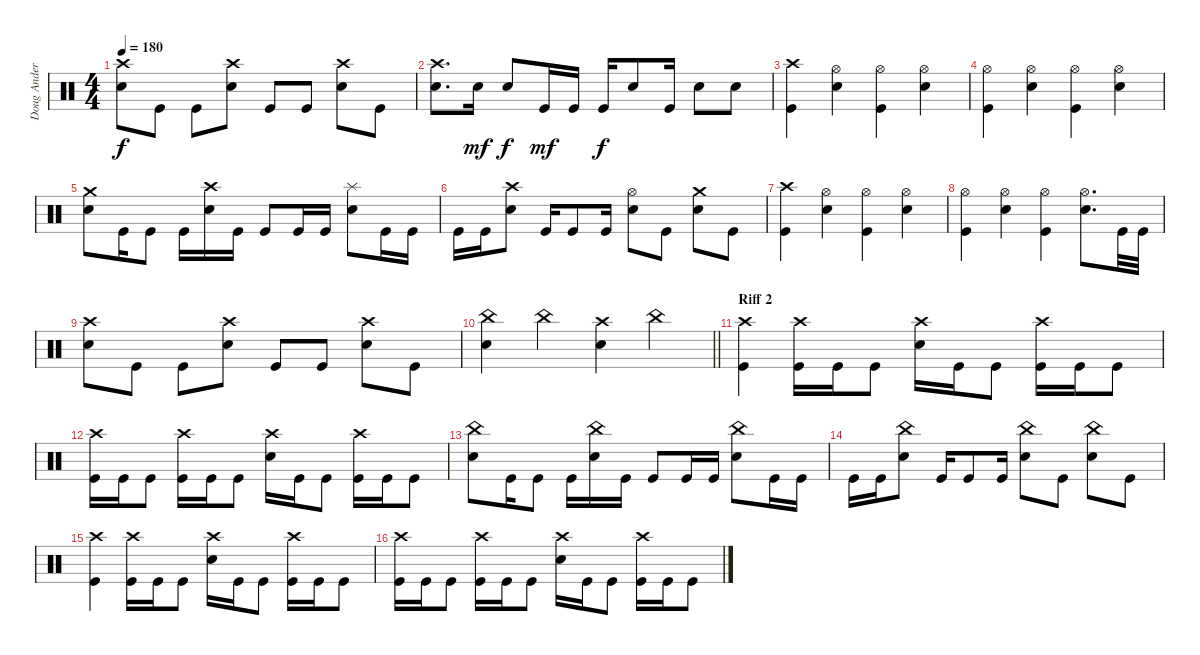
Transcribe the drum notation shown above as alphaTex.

\track ("Doug Anderson" "Doug Ander") {instrument percussion}
\staff {score}
\articulation defaults
\ts (4 4)
\tempo 180
\clef neutral
\ks c
("Snare (hit) 2" "Crash high (hit)").8{dy f} "Kick (hit)".8 "Kick (hit)".8 ("Snare (hit) 2" "Crash high (hit)").8 "Kick (hit)".8 "Kick (hit)".8 ("Snare (hit) 2" "Crash high (hit)").8 "Kick (hit)".8 |
("Snare (hit) 2" "Crash high (hit)").8{d} "Snare (hit) 2".16{dy mf} "Snare (hit) 2".8{dy f} "Kick (hit)".16{dy mf} "Kick (hit)".16 "Kick (hit)".16{dy f} "Snare (hit) 2".8 "Kick (hit)".16 "Snare (hit) 2".8 "Snare (hit) 2".8 |
("Kick (hit)" "Crash high (hit)").4 ("Snare (hit) 2" "Hi-Hat (open)").4 ("Kick (hit)" "Hi-Hat (open)").4 ("Snare (hit) 2" "Hi-Hat (open)").4 |
("Kick (hit)" "Hi-Hat (open)").4 ("Snare (hit) 2" "Hi-Hat (open)").4 ("Kick (hit)" "Hi-Hat (open)").4 ("Snare (hit) 2" "Hi-Hat (open)").4 |
("Snare (hit) 2" "Crash medium (hit)").8 "Kick (hit)".16 "Kick (hit)".8 "Kick (hit)".16 ("Snare (hit) 2" "Crash high (hit)").16 "Kick (hit)".16 "Kick (hit)".8 "Kick (hit)".16 "Kick (hit)".16 ("Snare (hit) 2" "Splash (hit)").8 "Kick (hit)".16 "Kick (hit)".16 |
"Kick (hit)".16 "Kick (hit)".16 ("Snare (hit) 2" "Crash high (hit)").8 "Kick (hit)".16 "Kick (hit)".8 "Kick (hit)".16 ("Snare (hit) 2" "Hi-Hat (open)").8 "Kick (hit)".8 ("Snare (hit) 2" "Crash medium (hit)").8 "Kick (hit)".8 |
("Kick (hit)" "Crash high (hit)").4 ("Snare (hit) 2" "Hi-Hat (open)").4 ("Kick (hit)" "Hi-Hat (open)").4 ("Snare (hit) 2" "Hi-Hat (open)").4 |
("Kick (hit)" "Hi-Hat (open)").4 ("Snare (hit) 2" "Hi-Hat (open)").4 ("Kick (hit)" "Hi-Hat (open)").4 ("Snare (hit) 2" "Hi-Hat (open)").8{d} "Kick (hit)".32 "Kick (hit)".32 |
("Snare (hit) 2" "Crash high (hit)").8 "Kick (hit)".8 "Kick (hit)".8 ("Snare (hit) 2" "Crash high (hit)").8 "Kick (hit)".8 "Kick (hit)".8 ("Snare (hit) 2" "Crash high (hit)").8 "Kick (hit)".8 |
\barLineRight lightlight
("Snare (hit) 2" "China (hit)").4 "China (hit)".4 ("Snare (hit) 2" "Crash high (hit)").4 "China (hit)".4 |
\section ("" "Riff 2")
("Kick (hit)" "Crash high (hit)").4 ("Kick (hit)" "Crash high (hit)").16 "Kick (hit)".16 "Kick (hit)".8 ("Snare (hit) 2" "Crash high (hit)").16 "Kick (hit)".16 "Kick (hit)".8 ("Kick (hit)" "Crash high (hit)").16 "Kick (hit)".16 "Kick (hit)".8 |
("Kick (hit)" "Crash high (hit)").16 "Kick (hit)".16 "Kick (hit)".8 ("Kick (hit)" "Crash high (hit)").16 "Kick (hit)".16 "Kick (hit)".8 ("Snare (hit) 2" "Crash high (hit)").16 "Kick (hit)".16 "Kick (hit)".8 ("Kick (hit)" "Crash high (hit)").16 "Kick (hit)".16 "Kick (hit)".8 |
("Snare (hit) 2" "China (hit)").8 "Kick (hit)".16 "Kick (hit)".8 "Kick (hit)".16 ("Snare (hit) 2" "China (hit)").16 "Kick (hit)".16 "Kick (hit)".8 "Kick (hit)".16 "Kick (hit)".16 ("Snare (hit) 2" "China (hit)").8 "Kick (hit)".16 "Kick (hit)".16 |
"Kick (hit)".16 "Kick (hit)".16 ("Snare (hit) 2" "China (hit)").8 "Kick (hit)".16 "Kick (hit)".8 "Kick (hit)".16 ("Snare (hit) 2" "China (hit)").8 "Kick (hit)".8 ("Snare (hit) 2" "China (hit)").8 "Kick (hit)".8 |
("Kick (hit)" "Crash high (hit)").4 ("Kick (hit)" "Crash high (hit)").16 "Kick (hit)".16 "Kick (hit)".8 ("Snare (hit) 2" "Crash high (hit)").16 "Kick (hit)".16 "Kick (hit)".8 ("Kick (hit)" "Crash high (hit)").16 "Kick (hit)".16 "Kick (hit)".8 |
("Kick (hit)" "Crash high (hit)").16 "Kick (hit)".16 "Kick (hit)".8 ("Kick (hit)" "Crash high (hit)").16 "Kick (hit)".16 "Kick (hit)".8 ("Snare (hit) 2" "Crash high (hit)").16 "Kick (hit)".16 "Kick (hit)".8 ("Kick (hit)" "Crash high (hit)").16 "Kick (hit)".16 "Kick (hit)".8
